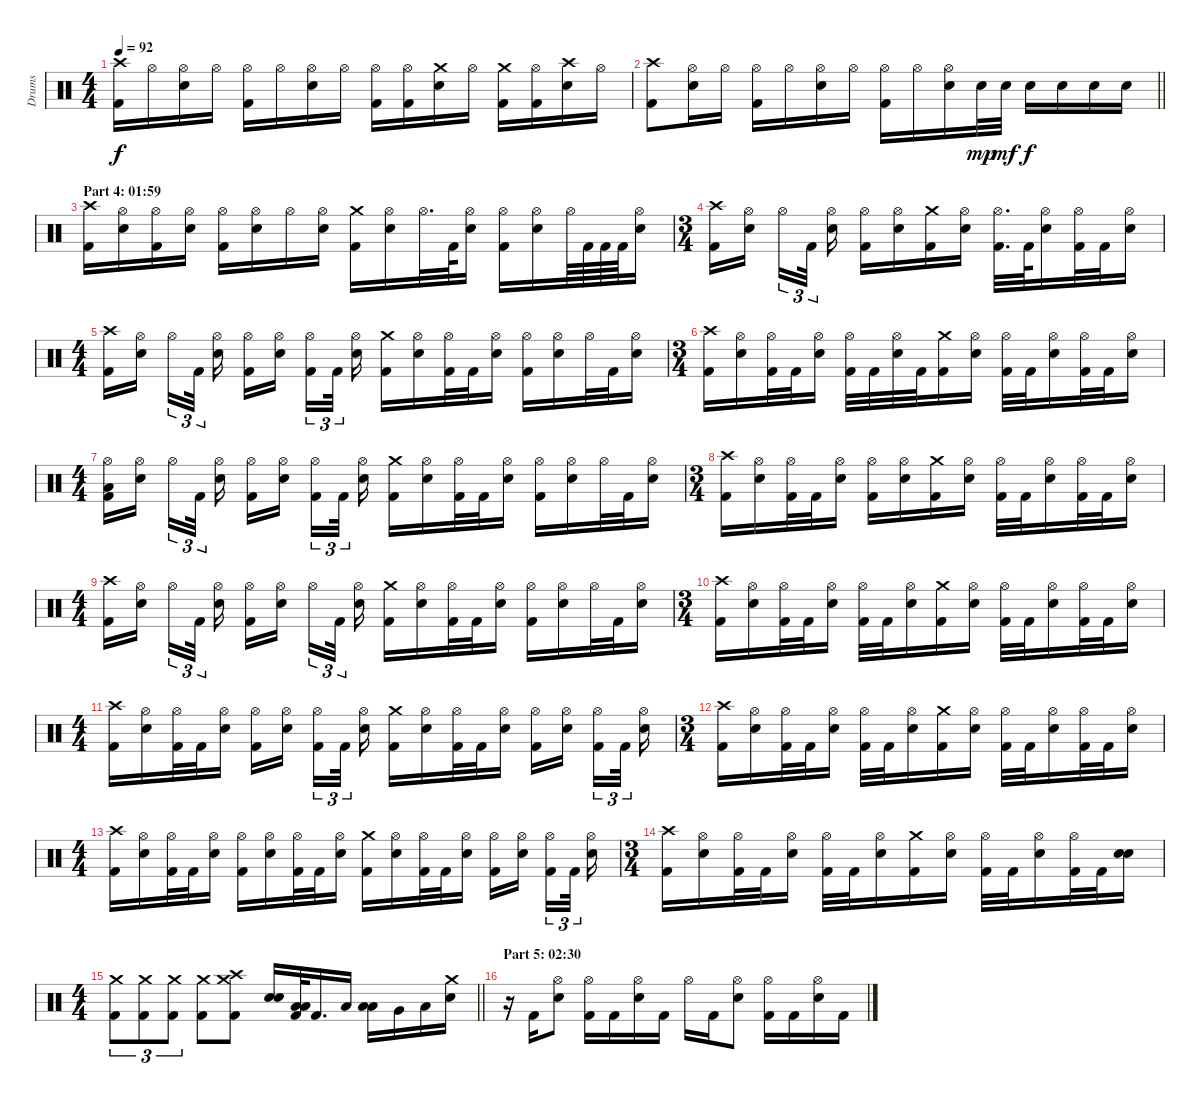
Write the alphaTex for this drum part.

\track ("Drums" "Drums") {instrument percussion}
\staff {score}
\articulation defaults
\ts (4 4)
\tempo 92
\clef neutral
\ks c
("Crash high (hit)" "Kick (hit) 2").16{dy f} "Hi-Hat (open)".16 ("Hi-Hat (open)" "Electric Snare (hit)").16 "Hi-Hat (open)".16 ("Hi-Hat (open)" "Kick (hit) 2").16 "Hi-Hat (open)".16 ("Hi-Hat (open)" "Electric Snare (hit)").16 "Hi-Hat (open)".16 ("Hi-Hat (open)" "Kick (hit) 2").16 ("Hi-Hat (open)" "Kick (hit) 2").16 ("Crash medium (hit)" "Electric Snare (hit)").16 "Hi-Hat (open)".16 ("Crash medium (hit)" "Kick (hit) 2").16 ("Hi-Hat (open)" "Kick (hit) 2").16 ("Crash high (hit)" "Electric Snare (hit)").16 "Hi-Hat (open)".16 |
\barLineRight lightlight
("Crash high (hit)" "Kick (hit) 2").8 ("Hi-Hat (open)" "Electric Snare (hit)").16 "Hi-Hat (open)".16 ("Hi-Hat (open)" "Kick (hit) 2").16 "Hi-Hat (open)".16 ("Hi-Hat (open)" "Electric Snare (hit)").16 "Hi-Hat (open)".16 ("Hi-Hat (open)" "Kick (hit) 2").16 "Hi-Hat (open)".16 ("Hi-Hat (open)" "Electric Snare (hit)").16 "Electric Snare (hit)".32{dy mp} "Electric Snare (hit)".32{dy mf} "Electric Snare (hit)".16{dy f} "Electric Snare (hit)".16 "Electric Snare (hit)".16 "Electric Snare (hit)".16 |
\section ("" "Part 4: 01:59")
("Crash high (hit)" "Kick (hit) 2").16 ("Hi-Hat (open)" "Electric Snare (hit)").16 ("Hi-Hat (open)" "Kick (hit) 2").16 ("Hi-Hat (open)" "Electric Snare (hit)").16 ("Hi-Hat (open)" "Kick (hit) 2").16 ("Hi-Hat (open)" "Electric Snare (hit)").16 "Hi-Hat (open)".16 ("Hi-Hat (open)" "Electric Snare (hit)").16 ("Crash medium (hit)" "Kick (hit) 2").16 ("Hi-Hat (open)" "Electric Snare (hit)").16 "Hi-Hat (open)".32{d} "Kick (hit) 2".64 ("Hi-Hat (open)" "Electric Snare (hit)").16 ("Hi-Hat (open)" "Kick (hit) 2").16 ("Hi-Hat (open)" "Electric Snare (hit)").16 "Hi-Hat (open)".64 "Kick (hit) 2".64 "Kick (hit) 2".64 "Kick (hit) 2".64 ("Hi-Hat (open)" "Electric Snare (hit)").16 |
\ts (3 4)
("Crash high (hit)" "Kick (hit) 2").16 ("Hi-Hat (open)" "Electric Snare (hit)").16{beam splitsecondary} "Hi-Hat (open)".16{tu (3 2)} "Kick (hit) 2".32{tu (3 2) beam splitsecondary} ("Hi-Hat (open)" "Electric Snare (hit)").16 ("Hi-Hat (open)" "Kick (hit) 2").16 ("Hi-Hat (open)" "Electric Snare (hit)").16 ("Crash medium (hit)" "Kick (hit) 2").16 ("Hi-Hat (open)" "Electric Snare (hit)").16 ("Hi-Hat (open)" "Kick (hit) 2").32{d} "Kick (hit) 2".64 ("Hi-Hat (open)" "Electric Snare (hit)").16 ("Hi-Hat (open)" "Kick (hit) 2").32 "Kick (hit) 2".32 ("Hi-Hat (open)" "Electric Snare (hit)").16 |
\ts (4 4)
("Crash high (hit)" "Kick (hit) 2").16 ("Hi-Hat (open)" "Electric Snare (hit)").16{beam splitsecondary} "Hi-Hat (open)".16{tu (3 2)} "Kick (hit) 2".32{tu (3 2) beam splitsecondary} ("Hi-Hat (open)" "Electric Snare (hit)").16 ("Hi-Hat (open)" "Kick (hit) 2").16 ("Hi-Hat (open)" "Electric Snare (hit)").16{beam splitsecondary} ("Hi-Hat (open)" "Kick (hit) 2").16{tu (3 2)} "Kick (hit) 2".32{tu (3 2) beam splitsecondary} ("Hi-Hat (open)" "Electric Snare (hit)").16 ("Crash medium (hit)" "Kick (hit) 2").16 ("Hi-Hat (open)" "Electric Snare (hit)").16 ("Hi-Hat (open)" "Kick (hit) 2").32 "Kick (hit) 2".32 ("Hi-Hat (open)" "Electric Snare (hit)").16 ("Hi-Hat (open)" "Kick (hit) 2").16 ("Hi-Hat (open)" "Electric Snare (hit)").16 "Hi-Hat (open)".32 "Kick (hit) 2".32 ("Hi-Hat (open)" "Electric Snare (hit)").16 |
\ts (3 4)
("Crash high (hit)" "Kick (hit) 2").16 ("Hi-Hat (open)" "Electric Snare (hit)").16 ("Hi-Hat (open)" "Kick (hit) 2").32 "Kick (hit) 2".32 ("Hi-Hat (open)" "Electric Snare (hit)").16 ("Hi-Hat (open)" "Kick (hit) 2").32 "Kick (hit) 2".32 ("Hi-Hat (open)" "Electric Snare (hit)").32 "Kick (hit) 2".32 ("Crash medium (hit)" "Kick (hit) 2").16 ("Hi-Hat (open)" "Electric Snare (hit)").16 ("Hi-Hat (open)" "Kick (hit) 2").32 "Kick (hit) 2".32 ("Hi-Hat (open)" "Electric Snare (hit)").16 ("Hi-Hat (open)" "Kick (hit) 2").32 "Kick (hit) 2".32 ("Hi-Hat (open)" "Electric Snare (hit)").16 |
\ts (4 4)
("Hi-Hat (open)" "Low Floor Tom (hit)" "Kick (hit) 2").16 ("Hi-Hat (open)" "Electric Snare (hit)").16{beam splitsecondary} "Hi-Hat (open)".16{tu (3 2)} "Kick (hit) 2".32{tu (3 2) beam splitsecondary} ("Hi-Hat (open)" "Electric Snare (hit)").16 ("Hi-Hat (open)" "Kick (hit) 2").16 ("Hi-Hat (open)" "Electric Snare (hit)").16{beam splitsecondary} ("Hi-Hat (open)" "Kick (hit) 2").16{tu (3 2)} "Kick (hit) 2".32{tu (3 2) beam splitsecondary} ("Hi-Hat (open)" "Electric Snare (hit)").16 ("Crash medium (hit)" "Kick (hit) 2").16 ("Hi-Hat (open)" "Electric Snare (hit)").16 ("Hi-Hat (open)" "Kick (hit) 2").32 "Kick (hit) 2".32 ("Hi-Hat (open)" "Electric Snare (hit)").16 ("Hi-Hat (open)" "Kick (hit) 2").16 ("Hi-Hat (open)" "Electric Snare (hit)").16 "Hi-Hat (open)".32 "Kick (hit) 2".32 ("Hi-Hat (open)" "Electric Snare (hit)").16 |
\ts (3 4)
("Crash high (hit)" "Kick (hit) 2").16 ("Hi-Hat (open)" "Electric Snare (hit)").16 ("Hi-Hat (open)" "Kick (hit) 2").32 "Kick (hit) 2".32 ("Hi-Hat (open)" "Electric Snare (hit)").16 ("Hi-Hat (open)" "Kick (hit) 2").16 ("Hi-Hat (open)" "Electric Snare (hit)").16 ("Crash medium (hit)" "Kick (hit) 2").16 ("Hi-Hat (open)" "Electric Snare (hit)").16 ("Hi-Hat (open)" "Kick (hit) 2").32 "Kick (hit) 2".32 ("Hi-Hat (open)" "Electric Snare (hit)").16 ("Hi-Hat (open)" "Kick (hit) 2").32 "Kick (hit) 2".32 ("Hi-Hat (open)" "Electric Snare (hit)").16 |
\ts (4 4)
("Crash high (hit)" "Kick (hit) 2").16 ("Hi-Hat (open)" "Electric Snare (hit)").16{beam splitsecondary} "Hi-Hat (open)".16{tu (3 2)} "Kick (hit) 2".32{tu (3 2) beam splitsecondary} ("Hi-Hat (open)" "Electric Snare (hit)").16 ("Hi-Hat (open)" "Kick (hit) 2").16 ("Hi-Hat (open)" "Electric Snare (hit)").16{beam splitsecondary} "Hi-Hat (open)".16{tu (3 2)} "Kick (hit) 2".32{tu (3 2) beam splitsecondary} ("Hi-Hat (open)" "Electric Snare (hit)").16 ("Crash medium (hit)" "Kick (hit) 2").16 ("Hi-Hat (open)" "Electric Snare (hit)").16 ("Hi-Hat (open)" "Kick (hit) 2").32 "Kick (hit) 2".32 ("Hi-Hat (open)" "Electric Snare (hit)").16 ("Hi-Hat (open)" "Kick (hit) 2").16 ("Hi-Hat (open)" "Electric Snare (hit)").16 "Hi-Hat (open)".32 "Kick (hit) 2".32 ("Hi-Hat (open)" "Electric Snare (hit)").16 |
\ts (3 4)
("Crash high (hit)" "Kick (hit) 2").16 ("Hi-Hat (open)" "Electric Snare (hit)").16 ("Hi-Hat (open)" "Kick (hit) 2").32 "Kick (hit) 2".32 ("Hi-Hat (open)" "Electric Snare (hit)").16 ("Hi-Hat (open)" "Kick (hit) 2").32 "Kick (hit) 2".32 ("Hi-Hat (open)" "Electric Snare (hit)").16 ("Crash medium (hit)" "Kick (hit) 2").16 ("Hi-Hat (open)" "Electric Snare (hit)").16 ("Hi-Hat (open)" "Kick (hit) 2").32 "Kick (hit) 2".32 ("Hi-Hat (open)" "Electric Snare (hit)").16 ("Hi-Hat (open)" "Kick (hit) 2").32 "Kick (hit) 2".32 ("Hi-Hat (open)" "Electric Snare (hit)").16 |
\ts (4 4)
("Crash high (hit)" "Kick (hit) 2").16 ("Hi-Hat (open)" "Electric Snare (hit)").16 ("Hi-Hat (open)" "Kick (hit) 2").32 "Kick (hit) 2".32 ("Hi-Hat (open)" "Electric Snare (hit)").16 ("Hi-Hat (open)" "Kick (hit) 2").16 ("Hi-Hat (open)" "Electric Snare (hit)").16{beam splitsecondary} ("Hi-Hat (open)" "Kick (hit) 2").16{tu (3 2)} "Kick (hit) 2".32{tu (3 2) beam splitsecondary} ("Hi-Hat (open)" "Electric Snare (hit)").16 ("Crash medium (hit)" "Kick (hit) 2").16 ("Hi-Hat (open)" "Electric Snare (hit)").16 ("Hi-Hat (open)" "Kick (hit) 2").32 "Kick (hit) 2".32 ("Hi-Hat (open)" "Electric Snare (hit)").16 ("Hi-Hat (open)" "Kick (hit) 2").16 ("Hi-Hat (open)" "Electric Snare (hit)").16{beam splitsecondary} ("Hi-Hat (open)" "Kick (hit) 2").16{tu (3 2)} "Kick (hit) 2".32{tu (3 2) beam splitsecondary} ("Hi-Hat (open)" "Electric Snare (hit)").16 |
\ts (3 4)
("Crash high (hit)" "Kick (hit) 2").16 ("Hi-Hat (open)" "Electric Snare (hit)").16 ("Hi-Hat (open)" "Kick (hit) 2").32 "Kick (hit) 2".32 ("Hi-Hat (open)" "Electric Snare (hit)").16 ("Hi-Hat (open)" "Kick (hit) 2").32 "Kick (hit) 2".32 ("Hi-Hat (open)" "Electric Snare (hit)").16 ("Crash medium (hit)" "Kick (hit) 2").16 ("Hi-Hat (open)" "Electric Snare (hit)").16 ("Hi-Hat (open)" "Kick (hit) 2").32 "Kick (hit) 2".32 ("Hi-Hat (open)" "Electric Snare (hit)").16 ("Hi-Hat (open)" "Kick (hit) 2").32 "Kick (hit) 2".32 ("Hi-Hat (open)" "Electric Snare (hit)").16 |
\ts (4 4)
("Crash high (hit)" "Kick (hit) 2").16 ("Hi-Hat (open)" "Electric Snare (hit)").16 ("Hi-Hat (open)" "Kick (hit) 2").32 "Kick (hit) 2".32 ("Hi-Hat (open)" "Electric Snare (hit)").16 ("Hi-Hat (open)" "Kick (hit) 2").16 ("Hi-Hat (open)" "Electric Snare (hit)").16 ("Hi-Hat (open)" "Kick (hit) 2").32 "Kick (hit) 2".32 ("Hi-Hat (open)" "Electric Snare (hit)").16 ("Crash medium (hit)" "Kick (hit) 2").16 ("Hi-Hat (open)" "Electric Snare (hit)").16 ("Hi-Hat (open)" "Kick (hit) 2").32 "Kick (hit) 2".32 ("Hi-Hat (open)" "Electric Snare (hit)").16 ("Hi-Hat (open)" "Kick (hit) 2").16 ("Hi-Hat (open)" "Electric Snare (hit)").16{beam splitsecondary} ("Hi-Hat (open)" "Kick (hit) 2").16{tu (3 2)} "Kick (hit) 2".32{tu (3 2) beam splitsecondary} ("Hi-Hat (open)" "Electric Snare (hit)").16 |
\ts (3 4)
("Crash high (hit)" "Kick (hit) 2").16 ("Hi-Hat (open)" "Electric Snare (hit)").16 ("Hi-Hat (open)" "Kick (hit) 2").32 "Kick (hit) 2".32 ("Hi-Hat (open)" "Electric Snare (hit)").16 ("Hi-Hat (open)" "Kick (hit) 2").32 "Kick (hit) 2".32 ("Hi-Hat (open)" "Electric Snare (hit)").16 ("Crash medium (hit)" "Kick (hit) 2").16 ("Hi-Hat (open)" "Electric Snare (hit)").16 ("Hi-Hat (open)" "Kick (hit) 2").32 "Kick (hit) 2".32 ("Hi-Hat (open)" "Electric Snare (hit)").16 ("Hi-Hat (open)" "Kick (hit) 2").32 "Kick (hit) 2".32 ("Electric Snare (hit)" "Electric Snare (hit)").16{bd 30} |
\ts (4 4)
\barLineRight lightlight
("Crash medium (hit)" "Kick (hit) 2").8{tu (3 2)} ("Crash medium (hit)" "Kick (hit) 2").8{tu (3 2)} ("Crash medium (hit)" "Kick (hit) 2").8{tu (3 2)} ("Crash medium (hit)" "Kick (hit) 2").8 ("Crash medium (hit)" "Crash high (hit)" "Kick (hit) 2").8 ("Electric Snare (hit)" "Electric Snare (hit)").16{bd 30} ("Low Tom (hit)" "Low Tom (hit)" "Kick (hit) 2").32{bd 30} "Kick (hit) 2".16{d} "Low Floor Tom (hit)".16 ("Low Tom (hit)" "Low Tom (hit)").16{bd 30} "Very Low Tom (hit)".16 "Low Floor Tom (hit)".16 ("Crash medium (hit)" "Electric Snare (hit)").16 |
\section ("" "Part 5: 02:30")
r.16 "Kick (hit) 2".16 ("Hi-Hat (open)" "Electric Snare (hit)").8 ("Hi-Hat (open)" "Kick (hit) 2").16 "Kick (hit) 2".16 ("Hi-Hat (open)" "Electric Snare (hit)").16 "Kick (hit) 2".16 "Hi-Hat (open)".16 "Kick (hit) 2".16 ("Hi-Hat (open)" "Electric Snare (hit)").8 ("Hi-Hat (open)" "Kick (hit) 2").16 "Kick (hit) 2".16 ("Hi-Hat (open)" "Electric Snare (hit)").16 "Kick (hit) 2".16
